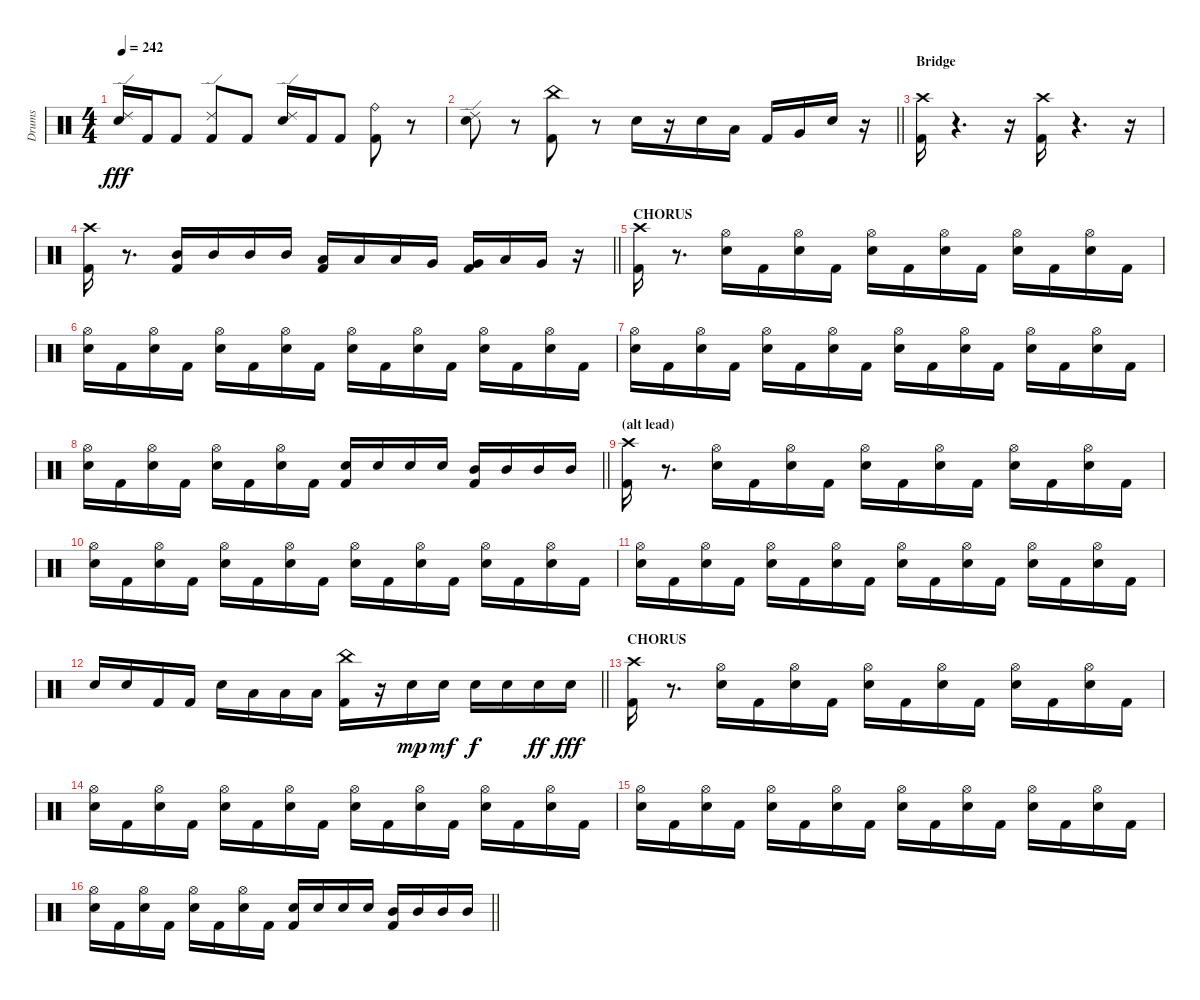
\track ("Drums" "Drums") {instrument percussion}
\staff {score}
\articulation defaults
\ts (4 4)
\tempo 242
\clef neutral
\ks c
("Snare (hit) 2" "Ride (edge) 2").16{dy fff} "Kick (hit) 2".16 "Kick (hit) 2".8 ("Kick (hit) 2" "Ride (edge) 2").8 "Kick (hit) 2".8 ("Snare (hit) 2" "Ride (edge) 2").16 "Kick (hit) 2".16 "Kick (hit) 2".8 ("Kick (hit) 2" "Ride (bell)").8 r.8 |
\barLineRight lightlight
("Snare (hit) 2" "Ride (edge) 2").8 r.8 ("Kick (hit) 2" "China (hit)").8 r.8 "Snare (hit) 2".16 r.16 "Snare (hit) 2".16 "Low Tom (hit)".16 "Kick (hit) 2".16 "Very Low Tom (hit)".16 "Snare (hit) 2".16 r.16 |
\section ("" "Bridge")
("Kick (hit) 2" "Crash high (hit)").16 r.4{d} r.16 ("Kick (hit) 2" "Crash high (hit)").16 r.4{d} r.16 |
\barLineRight lightlight
("Kick (hit) 2" "Crash high (hit)").16 r.8{d} ("Kick (hit) 2" "Mid Tom (hit)").16 "Mid Tom (hit)".16 "Mid Tom (hit)".16 "Mid Tom (hit)".16 ("Kick (hit) 2" "Low Tom (hit)").16 "Low Tom (hit)".16 "Low Tom (hit)".16 "Very Low Tom (hit)".16 ("Kick (hit) 2" "Very Low Tom (hit)").16 "Low Floor Tom (hit)".16 "Very Low Tom (hit)".16 r.16 |
\section ("" "CHORUS")
("Kick (hit) 2" "Crash high (hit)").16 r.8{d} ("Snare (hit) 2" "Hi-Hat (open)").16 "Kick (hit) 2".16 ("Snare (hit) 2" "Hi-Hat (open)").16 "Kick (hit) 2".16 ("Snare (hit) 2" "Hi-Hat (open)").16 "Kick (hit) 2".16 ("Snare (hit) 2" "Hi-Hat (open)").16 "Kick (hit) 2".16 ("Snare (hit) 2" "Hi-Hat (open)").16 "Kick (hit) 2".16 ("Snare (hit) 2" "Hi-Hat (open)").16 "Kick (hit) 2".16 |
("Snare (hit) 2" "Hi-Hat (open)").16 "Kick (hit) 2".16 ("Snare (hit) 2" "Hi-Hat (open)").16 "Kick (hit) 2".16 ("Snare (hit) 2" "Hi-Hat (open)").16 "Kick (hit) 2".16 ("Snare (hit) 2" "Hi-Hat (open)").16 "Kick (hit) 2".16 ("Snare (hit) 2" "Hi-Hat (open)").16 "Kick (hit) 2".16 ("Snare (hit) 2" "Hi-Hat (open)").16 "Kick (hit) 2".16 ("Snare (hit) 2" "Hi-Hat (open)").16 "Kick (hit) 2".16 ("Snare (hit) 2" "Hi-Hat (open)").16 "Kick (hit) 2".16 |
("Snare (hit) 2" "Hi-Hat (open)").16 "Kick (hit) 2".16 ("Snare (hit) 2" "Hi-Hat (open)").16 "Kick (hit) 2".16 ("Snare (hit) 2" "Hi-Hat (open)").16 "Kick (hit) 2".16 ("Snare (hit) 2" "Hi-Hat (open)").16 "Kick (hit) 2".16 ("Snare (hit) 2" "Hi-Hat (open)").16 "Kick (hit) 2".16 ("Snare (hit) 2" "Hi-Hat (open)").16 "Kick (hit) 2".16 ("Snare (hit) 2" "Hi-Hat (open)").16 "Kick (hit) 2".16 ("Snare (hit) 2" "Hi-Hat (open)").16 "Kick (hit) 2".16 |
\barLineRight lightlight
("Snare (hit) 2" "Hi-Hat (open)").16 "Kick (hit) 2".16 ("Snare (hit) 2" "Hi-Hat (open)").16 "Kick (hit) 2".16 ("Snare (hit) 2" "Hi-Hat (open)").16 "Kick (hit) 2".16 ("Snare (hit) 2" "Hi-Hat (open)").16 "Kick (hit) 2".16 ("Kick (hit) 2" "Snare (hit) 2").16 "Snare (hit) 2".16 "Snare (hit) 2".16 "Snare (hit) 2".16 ("Kick (hit) 2" "Mid Tom (hit)").16 "Mid Tom (hit)".16 "Mid Tom (hit)".16 "Mid Tom (hit)".16 |
\section ("" "(alt lead)")
("Kick (hit) 2" "Crash high (hit)").16 r.8{d} ("Snare (hit) 2" "Hi-Hat (open)").16 "Kick (hit) 2".16 ("Snare (hit) 2" "Hi-Hat (open)").16 "Kick (hit) 2".16 ("Snare (hit) 2" "Hi-Hat (open)").16 "Kick (hit) 2".16 ("Snare (hit) 2" "Hi-Hat (open)").16 "Kick (hit) 2".16 ("Snare (hit) 2" "Hi-Hat (open)").16 "Kick (hit) 2".16 ("Snare (hit) 2" "Hi-Hat (open)").16 "Kick (hit) 2".16 |
("Snare (hit) 2" "Hi-Hat (open)").16 "Kick (hit) 2".16 ("Snare (hit) 2" "Hi-Hat (open)").16 "Kick (hit) 2".16 ("Snare (hit) 2" "Hi-Hat (open)").16 "Kick (hit) 2".16 ("Snare (hit) 2" "Hi-Hat (open)").16 "Kick (hit) 2".16 ("Snare (hit) 2" "Hi-Hat (open)").16 "Kick (hit) 2".16 ("Snare (hit) 2" "Hi-Hat (open)").16 "Kick (hit) 2".16 ("Snare (hit) 2" "Hi-Hat (open)").16 "Kick (hit) 2".16 ("Snare (hit) 2" "Hi-Hat (open)").16 "Kick (hit) 2".16 |
("Snare (hit) 2" "Hi-Hat (open)").16 "Kick (hit) 2".16 ("Snare (hit) 2" "Hi-Hat (open)").16 "Kick (hit) 2".16 ("Snare (hit) 2" "Hi-Hat (open)").16 "Kick (hit) 2".16 ("Snare (hit) 2" "Hi-Hat (open)").16 "Kick (hit) 2".16 ("Snare (hit) 2" "Hi-Hat (open)").16 "Kick (hit) 2".16 ("Snare (hit) 2" "Hi-Hat (open)").16 "Kick (hit) 2".16 ("Snare (hit) 2" "Hi-Hat (open)").16 "Kick (hit) 2".16 ("Snare (hit) 2" "Hi-Hat (open)").16 "Kick (hit) 2".16 |
\barLineRight lightlight "Snare (hit) 2".16 "Snare (hit) 2".16 "Kick (hit) 2".16 "Kick (hit) 2".16 "Snare (hit) 2".16 "Low Tom (hit)".16 "Low Tom (hit)".16 "Low Tom (hit)".16
("Kick (hit) 2" "China (hit)").16 r.16 "Snare (hit) 2".16{dy mp} "Snare (hit) 2".16{dy mf} "Snare (hit) 2".16{dy f} "Snare (hit) 2".16 "Snare (hit) 2".16{dy ff} "Snare (hit) 2".16{dy fff} |
\section ("" "CHORUS")
("Kick (hit) 2" "Crash high (hit)").16 r.8{d} ("Snare (hit) 2" "Hi-Hat (open)").16 "Kick (hit) 2".16 ("Snare (hit) 2" "Hi-Hat (open)").16 "Kick (hit) 2".16 ("Snare (hit) 2" "Hi-Hat (open)").16 "Kick (hit) 2".16 ("Snare (hit) 2" "Hi-Hat (open)").16 "Kick (hit) 2".16 ("Snare (hit) 2" "Hi-Hat (open)").16 "Kick (hit) 2".16 ("Snare (hit) 2" "Hi-Hat (open)").16 "Kick (hit) 2".16 |
("Snare (hit) 2" "Hi-Hat (open)").16 "Kick (hit) 2".16 ("Snare (hit) 2" "Hi-Hat (open)").16 "Kick (hit) 2".16 ("Snare (hit) 2" "Hi-Hat (open)").16 "Kick (hit) 2".16 ("Snare (hit) 2" "Hi-Hat (open)").16 "Kick (hit) 2".16 ("Snare (hit) 2" "Hi-Hat (open)").16 "Kick (hit) 2".16 ("Snare (hit) 2" "Hi-Hat (open)").16 "Kick (hit) 2".16 ("Snare (hit) 2" "Hi-Hat (open)").16 "Kick (hit) 2".16 ("Snare (hit) 2" "Hi-Hat (open)").16 "Kick (hit) 2".16 |
("Snare (hit) 2" "Hi-Hat (open)").16 "Kick (hit) 2".16 ("Snare (hit) 2" "Hi-Hat (open)").16 "Kick (hit) 2".16 ("Snare (hit) 2" "Hi-Hat (open)").16 "Kick (hit) 2".16 ("Snare (hit) 2" "Hi-Hat (open)").16 "Kick (hit) 2".16 ("Snare (hit) 2" "Hi-Hat (open)").16 "Kick (hit) 2".16 ("Snare (hit) 2" "Hi-Hat (open)").16 "Kick (hit) 2".16 ("Snare (hit) 2" "Hi-Hat (open)").16 "Kick (hit) 2".16 ("Snare (hit) 2" "Hi-Hat (open)").16 "Kick (hit) 2".16 |
\barLineRight lightlight
("Snare (hit) 2" "Hi-Hat (open)").16 "Kick (hit) 2".16 ("Snare (hit) 2" "Hi-Hat (open)").16 "Kick (hit) 2".16 ("Snare (hit) 2" "Hi-Hat (open)").16 "Kick (hit) 2".16 ("Snare (hit) 2" "Hi-Hat (open)").16 "Kick (hit) 2".16 ("Kick (hit) 2" "Snare (hit) 2").16 "Snare (hit) 2".16 "Snare (hit) 2".16 "Snare (hit) 2".16 ("Kick (hit) 2" "Mid Tom (hit)").16 "Mid Tom (hit)".16 "Mid Tom (hit)".16 "Mid Tom (hit)".16
